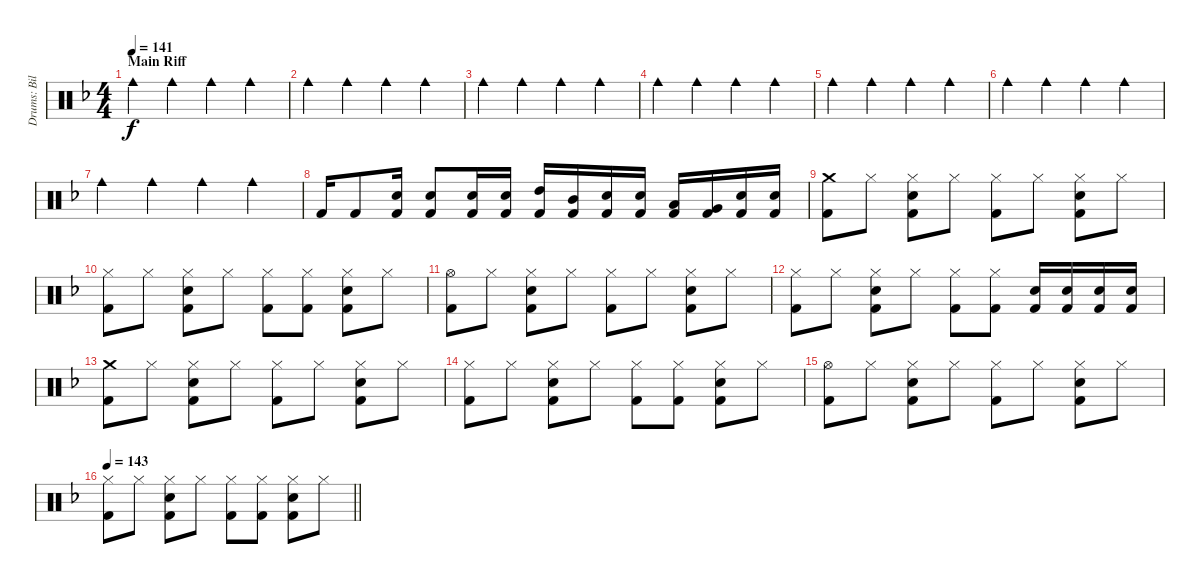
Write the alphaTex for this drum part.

\track ("Drums: Bill" "Drums: Bil") {instrument percussion}
\staff {score}
\articulation defaults
\ts (4 4)
\section ("" "Main Riff")
\tempo 141
\clef neutral
\ks f "Cowbell medium (hit)".4{dy f} "Cowbell medium (hit)".4 "Cowbell medium (hit)".4 "Cowbell medium (hit)".4
|
"Cowbell medium (hit)".4 "Cowbell medium (hit)".4 "Cowbell medium (hit)".4 "Cowbell medium (hit)".4 |
"Cowbell medium (hit)".4 "Cowbell medium (hit)".4 "Cowbell medium (hit)".4 "Cowbell medium (hit)".4 |
"Cowbell medium (hit)".4 "Cowbell medium (hit)".4 "Cowbell medium (hit)".4 "Cowbell medium (hit)".4 |
"Cowbell medium (hit)".4 "Cowbell medium (hit)".4 "Cowbell medium (hit)".4 "Cowbell medium (hit)".4 |
"Cowbell medium (hit)".4 "Cowbell medium (hit)".4 "Cowbell medium (hit)".4 "Cowbell medium (hit)".4 |
"Cowbell medium (hit)".4 "Cowbell medium (hit)".4 "Cowbell medium (hit)".4 "Cowbell medium (hit)".4 |
"Kick (hit) 2".16 "Kick (hit) 2".8 ("Electric Snare (hit)" "Kick (hit) 2").16 ("Electric Snare (hit)" "Kick (hit) 2").8 ("Snare (hit) 2" "Kick (hit) 2").16 ("Snare (hit) 2" "Kick (hit) 2").16 ("High Tom (hit)" "Kick (hit) 2").16 ("Mid Tom (hit)" "Kick (hit) 2").16 ("Electric Snare (hit)" "Kick (hit) 2").16 ("Electric Snare (hit)" "Kick (hit) 2").16 ("Low Tom (hit)" "Kick (hit) 2").16 ("Very Low Tom (hit)" "Kick (hit) 2").16 ("Snare (hit) 2" "Kick (hit) 2").16 ("Snare (hit) 2" "Kick (hit) 2").16 |
("Crash medium (hit)" "Kick (hit) 2").8 "Hi-Hat (closed)".8 ("Hi-Hat (closed)" "Snare (hit) 2" "Kick (hit) 2").8 "Hi-Hat (closed)".8 ("Hi-Hat (closed)" "Kick (hit) 2").8 "Hi-Hat (closed)".8 ("Hi-Hat (closed)" "Snare (hit) 2" "Kick (hit) 2").8 "Hi-Hat (closed)".8 |
("Hi-Hat (closed)" "Kick (hit) 2").8 "Hi-Hat (closed)".8 ("Hi-Hat (closed)" "Snare (hit) 2" "Kick (hit) 2").8 "Hi-Hat (closed)".8 ("Hi-Hat (closed)" "Kick (hit) 2").8 ("Hi-Hat (closed)" "Kick (hit) 2").8 ("Hi-Hat (closed)" "Snare (hit) 2" "Kick (hit) 2").8 "Hi-Hat (closed)".8 |
("Hi-Hat (open)" "Kick (hit) 2").8 "Hi-Hat (closed)".8 ("Hi-Hat (closed)" "Snare (hit) 2" "Kick (hit) 2").8 "Hi-Hat (closed)".8 ("Hi-Hat (closed)" "Kick (hit) 2").8 "Hi-Hat (closed)".8 ("Hi-Hat (closed)" "Snare (hit) 2" "Kick (hit) 2").8 "Hi-Hat (closed)".8 |
("Hi-Hat (closed)" "Kick (hit) 2").8 "Hi-Hat (closed)".8 ("Hi-Hat (closed)" "Snare (hit) 2" "Kick (hit) 2").8 "Hi-Hat (closed)".8 ("Hi-Hat (closed)" "Kick (hit) 2").8 ("Hi-Hat (closed)" "Kick (hit) 2").8 ("Electric Snare (hit)" "Kick (hit) 2").16 ("Electric Snare (hit)" "Kick (hit) 2").16 ("Electric Snare (hit)" "Kick (hit) 2").16 ("Electric Snare (hit)" "Kick (hit) 2").16 |
("Crash medium (hit)" "Kick (hit) 2").8 "Hi-Hat (closed)".8 ("Hi-Hat (closed)" "Snare (hit) 2" "Kick (hit) 2").8 "Hi-Hat (closed)".8 ("Hi-Hat (closed)" "Kick (hit) 2").8 "Hi-Hat (closed)".8 ("Hi-Hat (closed)" "Snare (hit) 2" "Kick (hit) 2").8 "Hi-Hat (closed)".8 |
("Hi-Hat (closed)" "Kick (hit) 2").8 "Hi-Hat (closed)".8 ("Hi-Hat (closed)" "Snare (hit) 2" "Kick (hit) 2").8 "Hi-Hat (closed)".8 ("Hi-Hat (closed)" "Kick (hit) 2").8 ("Hi-Hat (closed)" "Kick (hit) 2").8 ("Hi-Hat (closed)" "Snare (hit) 2" "Kick (hit) 2").8 "Hi-Hat (closed)".8 |
("Hi-Hat (open)" "Kick (hit) 2").8 "Hi-Hat (closed)".8 ("Hi-Hat (closed)" "Snare (hit) 2" "Kick (hit) 2").8 "Hi-Hat (closed)".8 ("Hi-Hat (closed)" "Kick (hit) 2").8 "Hi-Hat (closed)".8 ("Hi-Hat (closed)" "Snare (hit) 2" "Kick (hit) 2").8 "Hi-Hat (closed)".8 |
\tempo 143
\barLineRight lightlight
("Hi-Hat (closed)" "Kick (hit) 2").8 "Hi-Hat (closed)".8 ("Hi-Hat (closed)" "Snare (hit) 2" "Kick (hit) 2").8 "Hi-Hat (closed)".8 ("Hi-Hat (closed)" "Kick (hit) 2").8 ("Hi-Hat (closed)" "Kick (hit) 2").8 ("Hi-Hat (closed)" "Snare (hit) 2" "Kick (hit) 2").8 "Hi-Hat (closed)".8
